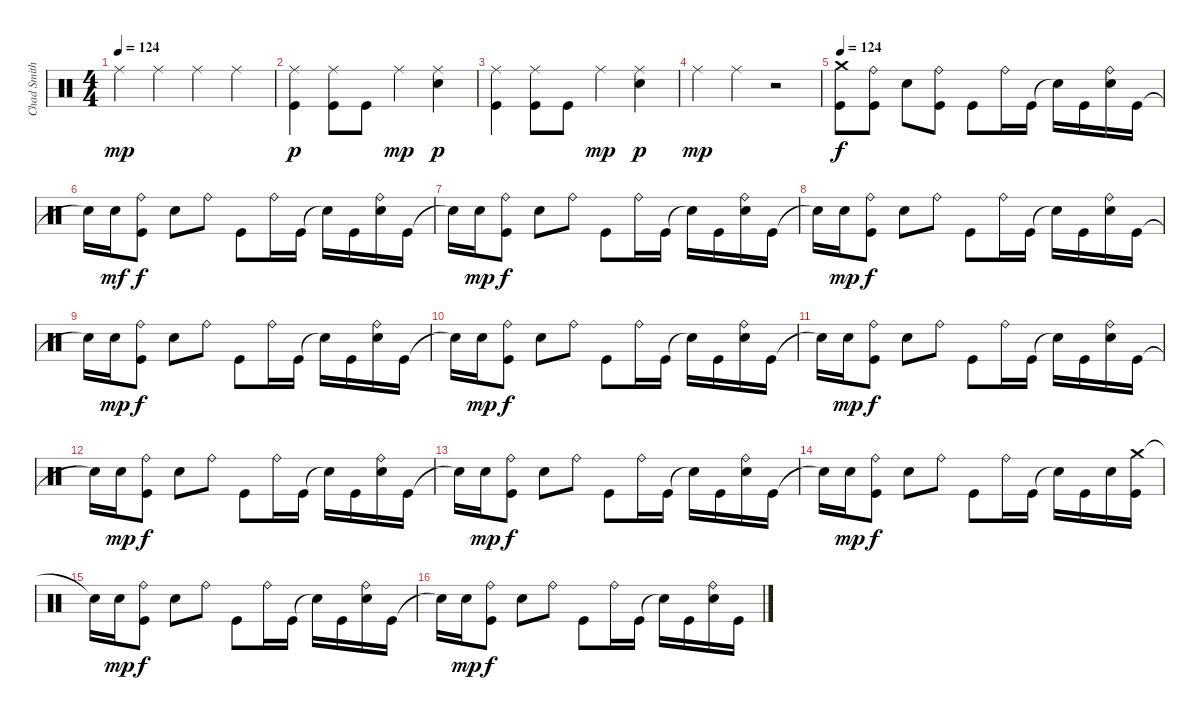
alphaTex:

\track ("Chad Smith" "Chad Smith") {instrument percussion}
\staff {score}
\articulation defaults
\ts (4 4)
\tempo 124
\clef neutral
\ks c "Ride (middle)".4{dy mp} "Ride (middle)".4 "Ride (middle)".4 "Ride (middle)".4
|
("Ride (middle)" "Kick (hit)").4{dy p} ("Ride (middle)" "Kick (hit)").8 "Kick (hit)".8 "Ride (middle)".4{dy mp} ("Ride (middle)" "Electric Snare (hit)").4{dy p} |
("Ride (middle)" "Kick (hit)").4 ("Ride (middle)" "Kick (hit)").8 "Kick (hit)".8 "Ride (middle)".4{dy mp} ("Ride (middle)" "Electric Snare (hit)").4{dy p} |
"Ride (middle)".4{dy mp} "Ride (middle)".4 r.2 |
\tempo 124
("Crash medium (hit)" "Kick (hit)").8{dy f} ("Ride (bell)" "Kick (hit)").8 "Electric Snare (hit)".8 ("Ride (bell)" "Kick (hit)").8 "Kick (hit)".8 "Ride (bell)".16 "Kick (hit)".16 "Snare (hit)"{t}.16 "Kick (hit)".16 ("Ride (bell)" "Electric Snare (hit)").16 "Kick (hit)".16 |
"Snare (hit)"{t}.16 "Electric Snare (hit)".16{dy mf} ("Ride (bell)" "Kick (hit)").8{dy f} "Electric Snare (hit)".8 "Ride (bell)".8 "Kick (hit)".8 "Ride (bell)".16 "Kick (hit)".16 "Snare (hit)"{t}.16 "Kick (hit)".16 ("Ride (bell)" "Electric Snare (hit)").16 "Kick (hit)".16 |
"Snare (hit)"{t}.16 "Electric Snare (hit)".16{dy mp} ("Ride (bell)" "Kick (hit)").8{dy f} "Electric Snare (hit)".8 "Ride (bell)".8 "Kick (hit)".8 "Ride (bell)".16 "Kick (hit)".16 "Snare (hit)"{t}.16 "Kick (hit)".16 ("Ride (bell)" "Electric Snare (hit)").16 "Kick (hit)".16 |
"Snare (hit)"{t}.16 "Electric Snare (hit)".16{dy mp} ("Ride (bell)" "Kick (hit)").8{dy f} "Electric Snare (hit)".8 "Ride (bell)".8 "Kick (hit)".8 "Ride (bell)".16 "Kick (hit)".16 "Snare (hit)"{t}.16 "Kick (hit)".16 ("Ride (bell)" "Electric Snare (hit)").16 "Kick (hit)".16 |
"Snare (hit)"{t}.16 "Electric Snare (hit)".16{dy mp} ("Ride (bell)" "Kick (hit)").8{dy f} "Electric Snare (hit)".8 "Ride (bell)".8 "Kick (hit)".8 "Ride (bell)".16 "Kick (hit)".16 "Snare (hit)"{t}.16 "Kick (hit)".16 ("Ride (bell)" "Electric Snare (hit)").16 "Kick (hit)".16 |
"Snare (hit)"{t}.16 "Electric Snare (hit)".16{dy mp} ("Ride (bell)" "Kick (hit)").8{dy f} "Electric Snare (hit)".8 "Ride (bell)".8 "Kick (hit)".8 "Ride (bell)".16 "Kick (hit)".16 "Snare (hit)"{t}.16 "Kick (hit)".16 ("Ride (bell)" "Electric Snare (hit)").16 "Kick (hit)".16 |
"Snare (hit)"{t}.16 "Electric Snare (hit)".16{dy mp} ("Ride (bell)" "Kick (hit)").8{dy f} "Electric Snare (hit)".8 "Ride (bell)".8 "Kick (hit)".8 "Ride (bell)".16 "Kick (hit)".16 "Snare (hit)"{t}.16 "Kick (hit)".16 ("Ride (bell)" "Electric Snare (hit)").16 "Kick (hit)".16 |
"Snare (hit)"{t}.16 "Electric Snare (hit)".16{dy mp} ("Ride (bell)" "Kick (hit)").8{dy f} "Electric Snare (hit)".8 "Ride (bell)".8 "Kick (hit)".8 "Ride (bell)".16 "Kick (hit)".16 "Snare (hit)"{t}.16 "Kick (hit)".16 ("Ride (bell)" "Electric Snare (hit)").16 "Kick (hit)".16 |
"Snare (hit)"{t}.16 "Electric Snare (hit)".16{dy mp} ("Ride (bell)" "Kick (hit)").8{dy f} "Electric Snare (hit)".8 "Ride (bell)".8 "Kick (hit)".8 "Ride (bell)".16 "Kick (hit)".16 "Snare (hit)"{t}.16 "Kick (hit)".16 ("Ride (bell)" "Electric Snare (hit)").16 "Kick (hit)".16 |
"Snare (hit)"{t}.16 "Electric Snare (hit)".16{dy mp} ("Ride (bell)" "Kick (hit)").8{dy f} "Electric Snare (hit)".8 "Ride (bell)".8 "Kick (hit)".8 "Ride (bell)".16 "Kick (hit)".16 "Snare (hit)"{t}.16 "Kick (hit)".16 "Electric Snare (hit)".16 ("Crash medium (hit)" "Kick (hit)").16 |
"Snare (hit)"{t}.16 "Electric Snare (hit)".16{dy mp} ("Ride (bell)" "Kick (hit)").8{dy f} "Electric Snare (hit)".8 "Ride (bell)".8 "Kick (hit)".8 "Ride (bell)".16 "Kick (hit)".16 "Snare (hit)"{t}.16 "Kick (hit)".16 ("Ride (bell)" "Electric Snare (hit)").16 "Kick (hit)".16 |
"Snare (hit)"{t}.16 "Electric Snare (hit)".16{dy mp} ("Ride (bell)" "Kick (hit)").8{dy f} "Electric Snare (hit)".8 "Ride (bell)".8 "Kick (hit)".8 "Ride (bell)".16 "Kick (hit)".16 "Snare (hit)"{t}.16 "Kick (hit)".16 ("Ride (bell)" "Electric Snare (hit)").16 "Kick (hit)".16
